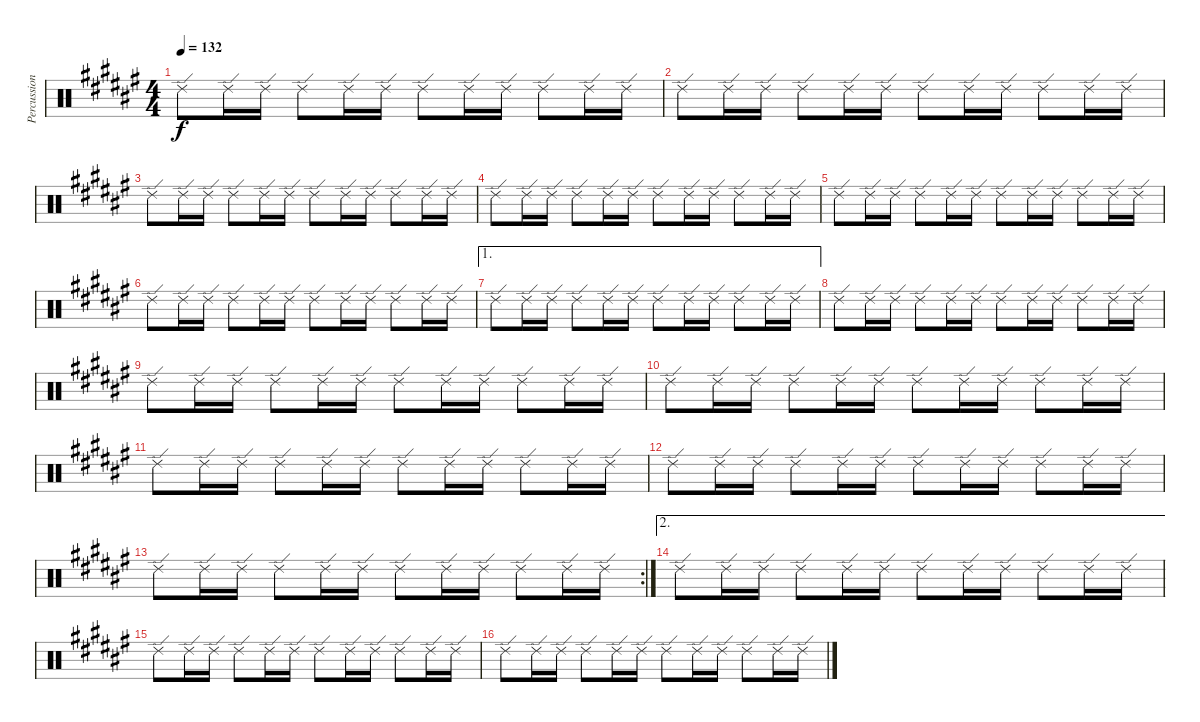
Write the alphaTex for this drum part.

\track ("Percussion" "Percussion") {instrument percussion}
\staff {score}
\articulation defaults
\ts (4 4)
\tempo 132
\clef neutral
\ks f# "Ride (edge) 2".8{dy f} "Ride (edge) 2".16 "Ride (edge) 2".16 "Ride (edge) 2".8 "Ride (edge) 2".16 "Ride (edge) 2".16 "Ride (edge) 2".8 "Ride (edge) 2".16 "Ride (edge) 2".16 "Ride (edge) 2".8 "Ride (edge) 2".16 "Ride (edge) 2".16
|
"Ride (edge) 2".8 "Ride (edge) 2".16 "Ride (edge) 2".16 "Ride (edge) 2".8 "Ride (edge) 2".16 "Ride (edge) 2".16 "Ride (edge) 2".8 "Ride (edge) 2".16 "Ride (edge) 2".16 "Ride (edge) 2".8 "Ride (edge) 2".16 "Ride (edge) 2".16 |
"Ride (edge) 2".8 "Ride (edge) 2".16 "Ride (edge) 2".16 "Ride (edge) 2".8 "Ride (edge) 2".16 "Ride (edge) 2".16 "Ride (edge) 2".8 "Ride (edge) 2".16 "Ride (edge) 2".16 "Ride (edge) 2".8 "Ride (edge) 2".16 "Ride (edge) 2".16 |
"Ride (edge) 2".8 "Ride (edge) 2".16 "Ride (edge) 2".16 "Ride (edge) 2".8 "Ride (edge) 2".16 "Ride (edge) 2".16 "Ride (edge) 2".8 "Ride (edge) 2".16 "Ride (edge) 2".16 "Ride (edge) 2".8 "Ride (edge) 2".16 "Ride (edge) 2".16 |
"Ride (edge) 2".8 "Ride (edge) 2".16 "Ride (edge) 2".16 "Ride (edge) 2".8 "Ride (edge) 2".16 "Ride (edge) 2".16 "Ride (edge) 2".8 "Ride (edge) 2".16 "Ride (edge) 2".16 "Ride (edge) 2".8 "Ride (edge) 2".16 "Ride (edge) 2".16 |
"Ride (edge) 2".8 "Ride (edge) 2".16 "Ride (edge) 2".16 "Ride (edge) 2".8 "Ride (edge) 2".16 "Ride (edge) 2".16 "Ride (edge) 2".8 "Ride (edge) 2".16 "Ride (edge) 2".16 "Ride (edge) 2".8 "Ride (edge) 2".16 "Ride (edge) 2".16 |
\ae 1 "Ride (edge) 2".8 "Ride (edge) 2".16 "Ride (edge) 2".16 "Ride (edge) 2".8 "Ride (edge) 2".16 "Ride (edge) 2".16 "Ride (edge) 2".8 "Ride (edge) 2".16 "Ride (edge) 2".16 "Ride (edge) 2".8 "Ride (edge) 2".16 "Ride (edge) 2".16
|
"Ride (edge) 2".8 "Ride (edge) 2".16 "Ride (edge) 2".16 "Ride (edge) 2".8 "Ride (edge) 2".16 "Ride (edge) 2".16 "Ride (edge) 2".8 "Ride (edge) 2".16 "Ride (edge) 2".16 "Ride (edge) 2".8 "Ride (edge) 2".16 "Ride (edge) 2".16 |
"Ride (edge) 2".8 "Ride (edge) 2".16 "Ride (edge) 2".16 "Ride (edge) 2".8 "Ride (edge) 2".16 "Ride (edge) 2".16 "Ride (edge) 2".8 "Ride (edge) 2".16 "Ride (edge) 2".16 "Ride (edge) 2".8 "Ride (edge) 2".16 "Ride (edge) 2".16 |
"Ride (edge) 2".8 "Ride (edge) 2".16 "Ride (edge) 2".16 "Ride (edge) 2".8 "Ride (edge) 2".16 "Ride (edge) 2".16 "Ride (edge) 2".8 "Ride (edge) 2".16 "Ride (edge) 2".16 "Ride (edge) 2".8 "Ride (edge) 2".16 "Ride (edge) 2".16 |
"Ride (edge) 2".8 "Ride (edge) 2".16 "Ride (edge) 2".16 "Ride (edge) 2".8 "Ride (edge) 2".16 "Ride (edge) 2".16 "Ride (edge) 2".8 "Ride (edge) 2".16 "Ride (edge) 2".16 "Ride (edge) 2".8 "Ride (edge) 2".16 "Ride (edge) 2".16 |
"Ride (edge) 2".8 "Ride (edge) 2".16 "Ride (edge) 2".16 "Ride (edge) 2".8 "Ride (edge) 2".16 "Ride (edge) 2".16 "Ride (edge) 2".8 "Ride (edge) 2".16 "Ride (edge) 2".16 "Ride (edge) 2".8 "Ride (edge) 2".16 "Ride (edge) 2".16 |
\rc 2 "Ride (edge) 2".8 "Ride (edge) 2".16 "Ride (edge) 2".16 "Ride (edge) 2".8 "Ride (edge) 2".16 "Ride (edge) 2".16 "Ride (edge) 2".8 "Ride (edge) 2".16 "Ride (edge) 2".16 "Ride (edge) 2".8 "Ride (edge) 2".16 "Ride (edge) 2".16
|
\ae 2 "Ride (edge) 2".8 "Ride (edge) 2".16 "Ride (edge) 2".16 "Ride (edge) 2".8 "Ride (edge) 2".16 "Ride (edge) 2".16 "Ride (edge) 2".8 "Ride (edge) 2".16 "Ride (edge) 2".16 "Ride (edge) 2".8 "Ride (edge) 2".16 "Ride (edge) 2".16
|
"Ride (edge) 2".8 "Ride (edge) 2".16 "Ride (edge) 2".16 "Ride (edge) 2".8 "Ride (edge) 2".16 "Ride (edge) 2".16 "Ride (edge) 2".8 "Ride (edge) 2".16 "Ride (edge) 2".16 "Ride (edge) 2".8 "Ride (edge) 2".16 "Ride (edge) 2".16 |
"Ride (edge) 2".8 "Ride (edge) 2".16 "Ride (edge) 2".16 "Ride (edge) 2".8 "Ride (edge) 2".16 "Ride (edge) 2".16 "Ride (edge) 2".8 "Ride (edge) 2".16 "Ride (edge) 2".16 "Ride (edge) 2".8 "Ride (edge) 2".16 "Ride (edge) 2".16
